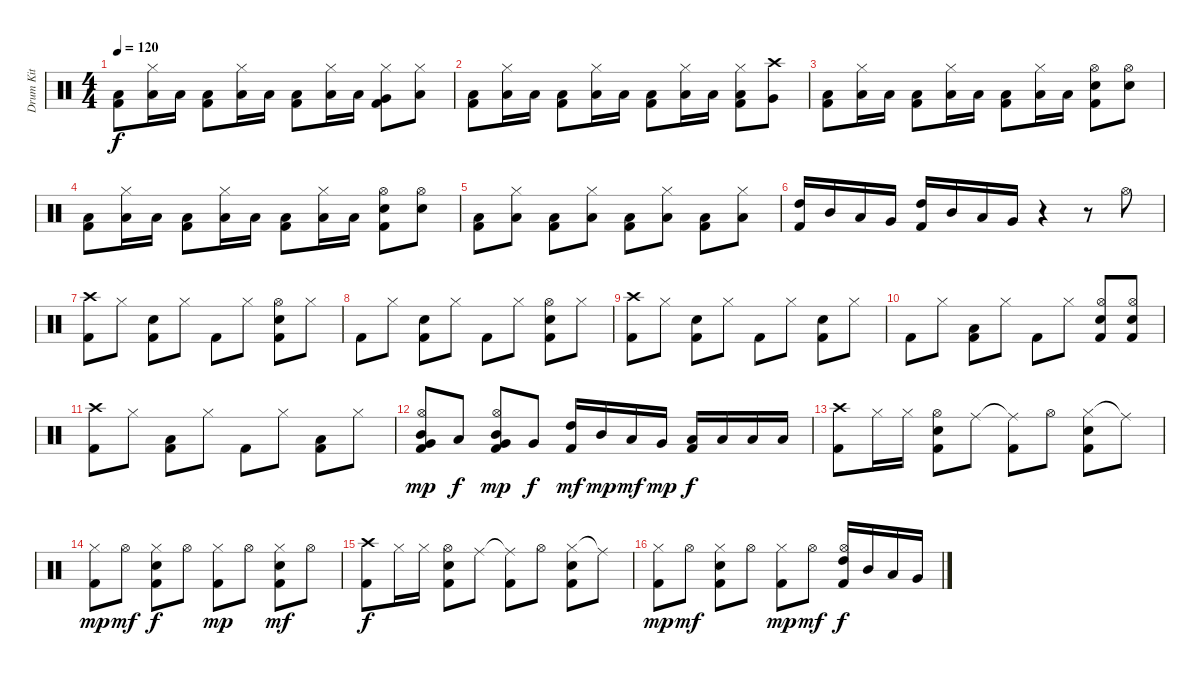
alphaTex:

\track ("Drum Kit" "Drum Kit") {instrument percussion}
\staff {score}
\articulation defaults
\ts (4 4)
\tempo 120
\clef neutral
\ks c
("Low Floor Tom (hit)" "Kick (hit) 2").8{dy f} ("Hi-Hat (closed)" "Low Floor Tom (hit)").16 "Low Floor Tom (hit)".16 ("Low Floor Tom (hit)" "Kick (hit) 2").8 ("Hi-Hat (closed)" "Low Floor Tom (hit)").16 "Low Floor Tom (hit)".16 ("Low Floor Tom (hit)" "Kick (hit) 2").8 ("Hi-Hat (closed)" "Low Floor Tom (hit)").16 "Low Floor Tom (hit)".16 ("Hi-Hat (closed)" "Very Low Tom (hit)" "Kick (hit) 2").8 ("Hi-Hat (closed)" "Low Tom (hit)").8 |
("Low Floor Tom (hit)" "Kick (hit) 2").8 ("Hi-Hat (closed)" "Low Floor Tom (hit)").16 "Low Floor Tom (hit)".16 ("Low Floor Tom (hit)" "Kick (hit) 2").8 ("Hi-Hat (closed)" "Low Floor Tom (hit)").16 "Low Floor Tom (hit)".16 ("Low Floor Tom (hit)" "Kick (hit) 2").8 ("Hi-Hat (closed)" "Low Floor Tom (hit)").16 "Low Floor Tom (hit)".16 ("Hi-Hat (closed)" "Low Tom (hit)" "Kick (hit) 2").8 ("Crash high (hit)" "Very Low Tom (hit)").8 |
("Low Floor Tom (hit)" "Kick (hit) 2").8 ("Hi-Hat (closed)" "Low Floor Tom (hit)").16 "Low Floor Tom (hit)".16 ("Low Floor Tom (hit)" "Kick (hit) 2").8 ("Hi-Hat (closed)" "Low Floor Tom (hit)").16 "Low Floor Tom (hit)".16 ("Low Floor Tom (hit)" "Kick (hit) 2").8 ("Hi-Hat (closed)" "Low Floor Tom (hit)").16 "Low Floor Tom (hit)".16 ("Hi-Hat (open)" "Snare (hit) 2" "Kick (hit) 2").8 ("Hi-Hat (open)" "Snare (hit) 2").8 |
("Low Floor Tom (hit)" "Kick (hit) 2").8 ("Hi-Hat (closed)" "Low Floor Tom (hit)").16 "Low Floor Tom (hit)".16 ("Low Floor Tom (hit)" "Kick (hit) 2").8 ("Hi-Hat (closed)" "Low Floor Tom (hit)").16 "Low Floor Tom (hit)".16 ("Low Floor Tom (hit)" "Kick (hit) 2").8 ("Hi-Hat (closed)" "Low Floor Tom (hit)").16 "Low Floor Tom (hit)".16 ("Hi-Hat (open)" "Snare (hit) 2" "Kick (hit) 2").8 ("Hi-Hat (open)" "Snare (hit) 2").8 |
("Low Floor Tom (hit)" "Kick (hit) 2").8 ("Hi-Hat (closed)" "Low Floor Tom (hit)").8 ("Low Floor Tom (hit)" "Kick (hit) 2").8 ("Hi-Hat (closed)" "Low Floor Tom (hit)").8 ("Low Floor Tom (hit)" "Kick (hit) 2").8 ("Hi-Hat (closed)" "Low Floor Tom (hit)").8 ("Low Floor Tom (hit)" "Kick (hit) 2").8 ("Hi-Hat (closed)" "Low Floor Tom (hit)").8 |
("High Tom (hit)" "Kick (hit) 2").16{volume 0} "Mid Tom (hit)".16 "Low Tom (hit)".16 "Very Low Tom (hit)".16 ("High Tom (hit)" "Kick (hit) 2").16 "Mid Tom (hit)".16 "Low Tom (hit)".16 "Very Low Tom (hit)".16 r.4 r.8 "Hi-Hat (open)".8{volume 9} |
("Crash high (hit)" "Kick (hit) 2").8 "Hi-Hat (closed)".8 ("Snare (hit) 2" "Kick (hit) 2").8 "Hi-Hat (closed)".8 "Kick (hit) 2".8 "Hi-Hat (closed)".8 ("Hi-Hat (open)" "Snare (hit) 2" "Kick (hit) 2").8 "Hi-Hat (closed)".8 |
"Kick (hit) 2".8 "Hi-Hat (closed)".8 ("Snare (hit) 2" "Kick (hit) 2").8 "Hi-Hat (closed)".8 "Kick (hit) 2".8 "Hi-Hat (closed)".8 ("Hi-Hat (open)" "Snare (hit) 2" "Kick (hit) 2").8 "Hi-Hat (closed)".8 |
("Crash high (hit)" "Kick (hit) 2").8 "Hi-Hat (closed)".8 ("Snare (hit) 2" "Kick (hit) 2").8 "Hi-Hat (closed)".8 "Kick (hit) 2".8 "Hi-Hat (closed)".8 ("Snare (hit) 2" "Kick (hit) 2").8 "Hi-Hat (closed)".8 |
"Kick (hit) 2".8 "Hi-Hat (closed)".8 ("Low Floor Tom (hit)" "Kick (hit) 2").8 "Hi-Hat (closed)".8 "Kick (hit) 2".8 "Hi-Hat (closed)".8 ("Hi-Hat (open)" "Snare (hit) 2" "Kick (hit) 2").8 ("Hi-Hat (open)" "Snare (hit) 2" "Kick (hit) 2").8 |
("Crash high (hit)" "Kick (hit) 2").8 "Hi-Hat (closed)".8 ("Low Floor Tom (hit)" "Kick (hit) 2").8 "Hi-Hat (closed)".8 "Kick (hit) 2".8 "Hi-Hat (closed)".8 ("Low Floor Tom (hit)" "Kick (hit) 2").8 "Hi-Hat (closed)".8 |
("Very Low Tom (hit)" "Mid Tom (hit)" "Hi-Hat (open)" "Kick (hit) 2").8{dy mp} "Low Tom (hit)".8{dy f} ("Very Low Tom (hit)" "Mid Tom (hit)" "Hi-Hat (open)" "Kick (hit) 2").8{dy mp} "Very Low Tom (hit)".8{dy f} ("High Tom (hit)" "Kick (hit) 2").16{dy mf} "Mid Tom (hit)".16{dy mp} "Low Tom (hit)".16{dy mf} "Very Low Tom (hit)".16{dy mp} ("Low Floor Tom (hit)" "Kick (hit) 2").16{dy f} "Low Floor Tom (hit)".16 "Low Floor Tom (hit)".16 "Low Floor Tom (hit)".16 |
("Crash high (hit)" "Kick (hit) 2").8 "Hi-Hat (closed)".16 "Hi-Hat (closed)".16 ("Hi-Hat (open)" "Snare (hit) 2" "Kick (hit) 2").8 "Ride (middle)".8 ("Ride (middle)"{t} "Kick (hit) 2").8 "Hi-Hat (open)".8 ("Hi-Hat (closed)" "Snare (hit) 2" "Kick (hit) 2").8 "Ride (middle)"{t}.8 |
("Hi-Hat (closed)" "Kick (hit) 2").8{dy mp} "Hi-Hat (open)".8{dy mf} ("Hi-Hat (closed)" "Kick (hit) 2" "Snare (hit) 2").8{dy f} "Hi-Hat (open)".8 ("Hi-Hat (closed)" "Kick (hit) 2").8{dy mp} "Hi-Hat (open)".8 ("Hi-Hat (closed)" "Kick (hit) 2" "Snare (hit) 2").8{dy mf} "Hi-Hat (open)".8 |
("Crash high (hit)" "Kick (hit) 2").8{dy f} "Hi-Hat (closed)".16 "Hi-Hat (closed)".16 ("Hi-Hat (open)" "Snare (hit) 2" "Kick (hit) 2").8 "Ride (middle)".8 ("Ride (middle)"{t} "Kick (hit) 2").8 "Hi-Hat (open)".8 ("Hi-Hat (closed)" "Snare (hit) 2" "Kick (hit) 2").8 "Ride (middle)"{t}.8 |
("Hi-Hat (closed)" "Kick (hit) 2").8{dy mp} "Hi-Hat (open)".8{dy mf} ("Hi-Hat (closed)" "Kick (hit) 2" "Snare (hit) 2").8 "Hi-Hat (open)".8 ("Hi-Hat (closed)" "Kick (hit) 2").8{dy mp} "Hi-Hat (open)".8{dy mf} ("Hi-Hat (open)" "Kick (hit) 2" "High Tom (hit)").16{dy f} "Mid Tom (hit)".16 "Low Tom (hit)".16 "Very Low Tom (hit)".16
